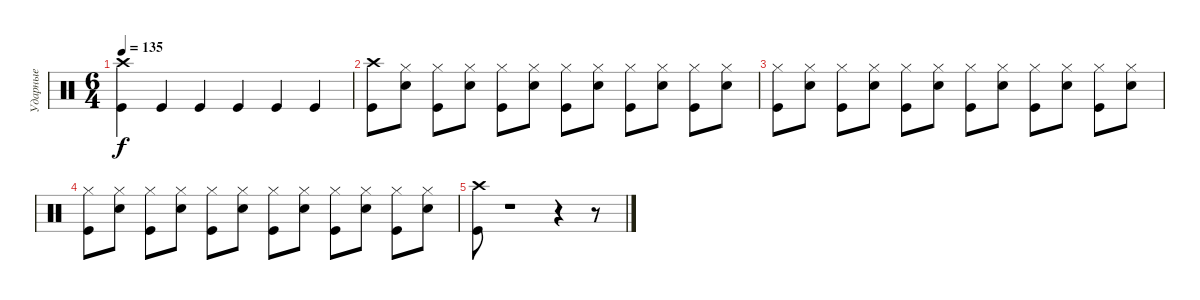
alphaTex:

\track ("Ударные" "Ударные") {instrument percussion}
\staff {score}
\articulation defaults
\ts (6 4)
\tempo 135
\clef neutral
\ks c
("Crash high (hit)" "Kick (hit)").4{dy f} "Kick (hit)".4 "Kick (hit)".4 "Kick (hit)".4 "Kick (hit)".4 "Kick (hit)".4 |
("Crash high (hit)" "Kick (hit)").8 ("Hi-Hat (closed)" "Electric Snare (hit)").8 ("Hi-Hat (closed)" "Kick (hit)").8 ("Hi-Hat (closed)" "Electric Snare (hit)").8 ("Hi-Hat (closed)" "Kick (hit)").8 ("Hi-Hat (closed)" "Electric Snare (hit)").8 ("Hi-Hat (closed)" "Kick (hit)").8 ("Hi-Hat (closed)" "Electric Snare (hit)").8 ("Hi-Hat (closed)" "Kick (hit)").8 ("Hi-Hat (closed)" "Electric Snare (hit)").8 ("Hi-Hat (closed)" "Kick (hit)").8 ("Hi-Hat (closed)" "Electric Snare (hit)").8 |
("Hi-Hat (closed)" "Kick (hit)").8 ("Hi-Hat (closed)" "Electric Snare (hit)").8 ("Hi-Hat (closed)" "Kick (hit)").8 ("Hi-Hat (closed)" "Electric Snare (hit)").8 ("Hi-Hat (closed)" "Kick (hit)").8 ("Hi-Hat (closed)" "Electric Snare (hit)").8 ("Hi-Hat (closed)" "Kick (hit)").8 ("Hi-Hat (closed)" "Electric Snare (hit)").8 ("Hi-Hat (closed)" "Kick (hit)").8 ("Hi-Hat (closed)" "Electric Snare (hit)").8 ("Hi-Hat (closed)" "Kick (hit)").8 ("Hi-Hat (closed)" "Electric Snare (hit)").8 |
("Hi-Hat (closed)" "Kick (hit)").8 ("Hi-Hat (closed)" "Electric Snare (hit)").8 ("Hi-Hat (closed)" "Kick (hit)").8 ("Hi-Hat (closed)" "Electric Snare (hit)").8 ("Hi-Hat (closed)" "Kick (hit)").8 ("Hi-Hat (closed)" "Electric Snare (hit)").8 ("Hi-Hat (closed)" "Kick (hit)").8 ("Hi-Hat (closed)" "Electric Snare (hit)").8 ("Hi-Hat (closed)" "Kick (hit)").8 ("Hi-Hat (closed)" "Electric Snare (hit)").8 ("Hi-Hat (closed)" "Kick (hit)").8 ("Hi-Hat (closed)" "Electric Snare (hit)").8 |
("Crash high (hit)" "Kick (hit)").8 r.1 r.4 r.8
